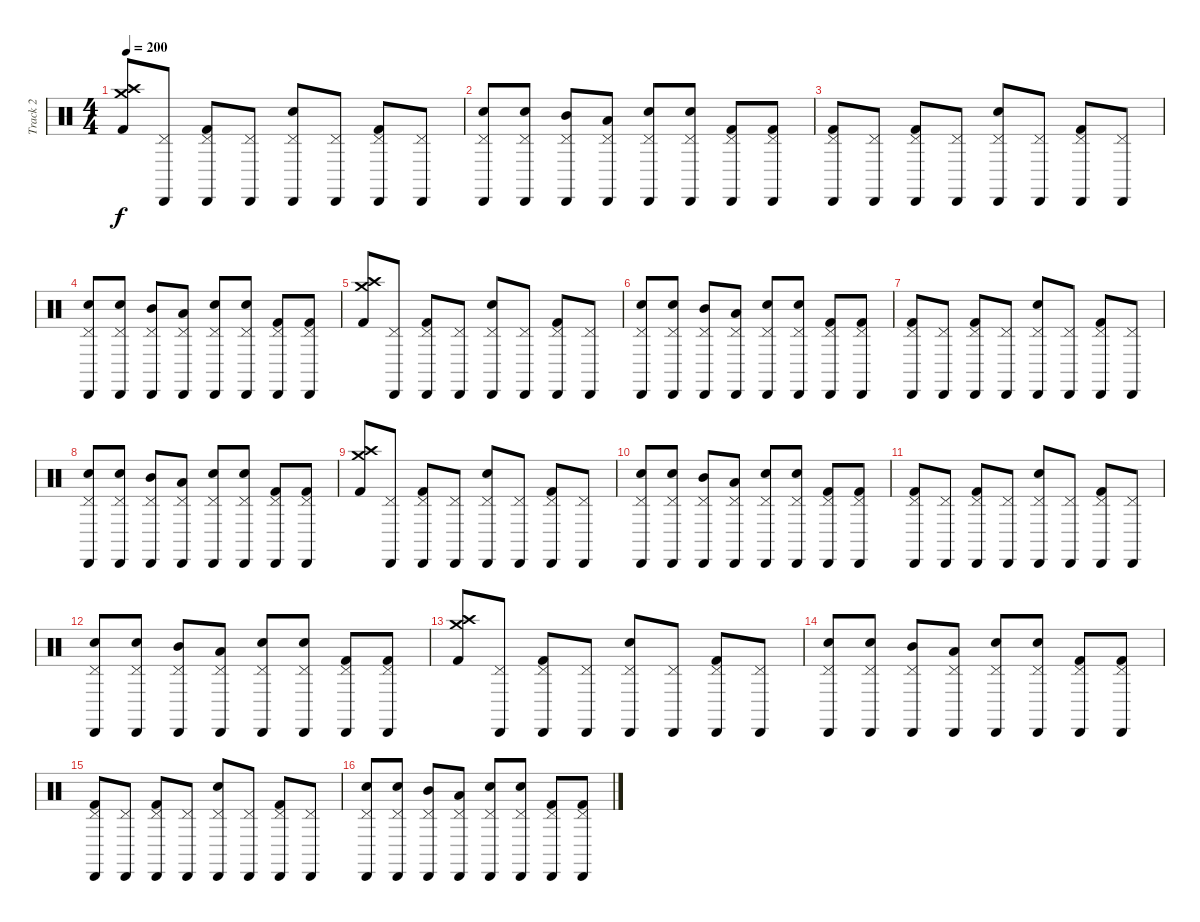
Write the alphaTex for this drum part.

\track ("Track 2" "Track 2") {instrument percussion}
\staff {score}
\articulation defaults
\ts (4 4)
\tempo 200
\clef neutral
\ks c
("Crash high (hit)" "Crash medium (hit)" "Kick (hit) 2").8{dy f} ("Cabasa (hit)" "Pedal Hi-Hat (hit)").8 ("Cabasa (hit)" "Pedal Hi-Hat (hit)" "Kick (hit) 2").8 ("Cabasa (hit)" "Pedal Hi-Hat (hit)").8 ("Cabasa (hit)" "Pedal Hi-Hat (hit)" "Snare (hit) 2").8 ("Cabasa (hit)" "Pedal Hi-Hat (hit)").8 ("Cabasa (hit)" "Pedal Hi-Hat (hit)" "Kick (hit) 2").8 ("Cabasa (hit)" "Pedal Hi-Hat (hit)").8 |
("Cabasa (hit)" "Pedal Hi-Hat (hit)" "Snare (hit) 2").8 ("Cabasa (hit)" "Pedal Hi-Hat (hit)" "Snare (hit) 2").8 ("Cabasa (hit)" "Pedal Hi-Hat (hit)" "Mid Tom (hit)").8 ("Cabasa (hit)" "Pedal Hi-Hat (hit)" "Low Floor Tom (hit)").8 ("Cabasa (hit)" "Pedal Hi-Hat (hit)" "Snare (hit) 2").8 ("Cabasa (hit)" "Pedal Hi-Hat (hit)" "Snare (hit) 2").8 ("Cabasa (hit)" "Pedal Hi-Hat (hit)" "Kick (hit) 2").8 ("Cabasa (hit)" "Pedal Hi-Hat (hit)" "Kick (hit) 2").8 |
("Cabasa (hit)" "Pedal Hi-Hat (hit)" "Kick (hit) 2").8 ("Cabasa (hit)" "Pedal Hi-Hat (hit)").8 ("Cabasa (hit)" "Pedal Hi-Hat (hit)" "Kick (hit) 2").8 ("Cabasa (hit)" "Pedal Hi-Hat (hit)").8 ("Cabasa (hit)" "Pedal Hi-Hat (hit)" "Snare (hit) 2").8 ("Cabasa (hit)" "Pedal Hi-Hat (hit)").8 ("Cabasa (hit)" "Pedal Hi-Hat (hit)" "Kick (hit) 2").8 ("Cabasa (hit)" "Pedal Hi-Hat (hit)").8 |
("Cabasa (hit)" "Pedal Hi-Hat (hit)" "Snare (hit) 2").8 ("Cabasa (hit)" "Pedal Hi-Hat (hit)" "Snare (hit) 2").8 ("Cabasa (hit)" "Pedal Hi-Hat (hit)" "Mid Tom (hit)").8 ("Cabasa (hit)" "Pedal Hi-Hat (hit)" "Low Floor Tom (hit)").8 ("Cabasa (hit)" "Pedal Hi-Hat (hit)" "Snare (hit) 2").8 ("Cabasa (hit)" "Pedal Hi-Hat (hit)" "Snare (hit) 2").8 ("Cabasa (hit)" "Pedal Hi-Hat (hit)" "Kick (hit) 2").8 ("Cabasa (hit)" "Pedal Hi-Hat (hit)" "Kick (hit) 2").8 |
("Crash high (hit)" "Crash medium (hit)" "Kick (hit) 2").8 ("Cabasa (hit)" "Pedal Hi-Hat (hit)").8 ("Cabasa (hit)" "Pedal Hi-Hat (hit)" "Kick (hit) 2").8 ("Cabasa (hit)" "Pedal Hi-Hat (hit)").8 ("Cabasa (hit)" "Pedal Hi-Hat (hit)" "Snare (hit) 2").8 ("Cabasa (hit)" "Pedal Hi-Hat (hit)").8 ("Cabasa (hit)" "Pedal Hi-Hat (hit)" "Kick (hit) 2").8 ("Cabasa (hit)" "Pedal Hi-Hat (hit)").8 |
("Cabasa (hit)" "Pedal Hi-Hat (hit)" "Snare (hit) 2").8 ("Cabasa (hit)" "Pedal Hi-Hat (hit)" "Snare (hit) 2").8 ("Cabasa (hit)" "Pedal Hi-Hat (hit)" "Mid Tom (hit)").8 ("Cabasa (hit)" "Pedal Hi-Hat (hit)" "Low Floor Tom (hit)").8 ("Cabasa (hit)" "Pedal Hi-Hat (hit)" "Snare (hit) 2").8 ("Cabasa (hit)" "Pedal Hi-Hat (hit)" "Snare (hit) 2").8 ("Cabasa (hit)" "Pedal Hi-Hat (hit)" "Kick (hit) 2").8 ("Cabasa (hit)" "Pedal Hi-Hat (hit)" "Kick (hit) 2").8 |
("Cabasa (hit)" "Pedal Hi-Hat (hit)" "Kick (hit) 2").8 ("Cabasa (hit)" "Pedal Hi-Hat (hit)").8 ("Cabasa (hit)" "Pedal Hi-Hat (hit)" "Kick (hit) 2").8 ("Cabasa (hit)" "Pedal Hi-Hat (hit)").8 ("Cabasa (hit)" "Pedal Hi-Hat (hit)" "Snare (hit) 2").8 ("Cabasa (hit)" "Pedal Hi-Hat (hit)").8 ("Cabasa (hit)" "Pedal Hi-Hat (hit)" "Kick (hit) 2").8 ("Cabasa (hit)" "Pedal Hi-Hat (hit)").8 |
("Cabasa (hit)" "Pedal Hi-Hat (hit)" "Snare (hit) 2").8 ("Cabasa (hit)" "Pedal Hi-Hat (hit)" "Snare (hit) 2").8 ("Cabasa (hit)" "Pedal Hi-Hat (hit)" "Mid Tom (hit)").8 ("Cabasa (hit)" "Pedal Hi-Hat (hit)" "Low Floor Tom (hit)").8 ("Cabasa (hit)" "Pedal Hi-Hat (hit)" "Snare (hit) 2").8 ("Cabasa (hit)" "Pedal Hi-Hat (hit)" "Snare (hit) 2").8 ("Cabasa (hit)" "Pedal Hi-Hat (hit)" "Kick (hit) 2").8 ("Cabasa (hit)" "Pedal Hi-Hat (hit)" "Kick (hit) 2").8 |
("Crash high (hit)" "Crash medium (hit)" "Kick (hit) 2").8 ("Cabasa (hit)" "Pedal Hi-Hat (hit)").8 ("Cabasa (hit)" "Pedal Hi-Hat (hit)" "Kick (hit) 2").8 ("Cabasa (hit)" "Pedal Hi-Hat (hit)").8 ("Cabasa (hit)" "Pedal Hi-Hat (hit)" "Snare (hit) 2").8 ("Cabasa (hit)" "Pedal Hi-Hat (hit)").8 ("Cabasa (hit)" "Pedal Hi-Hat (hit)" "Kick (hit) 2").8 ("Cabasa (hit)" "Pedal Hi-Hat (hit)").8 |
("Cabasa (hit)" "Pedal Hi-Hat (hit)" "Snare (hit) 2").8 ("Cabasa (hit)" "Pedal Hi-Hat (hit)" "Snare (hit) 2").8 ("Cabasa (hit)" "Pedal Hi-Hat (hit)" "Mid Tom (hit)").8 ("Cabasa (hit)" "Pedal Hi-Hat (hit)" "Low Floor Tom (hit)").8 ("Cabasa (hit)" "Pedal Hi-Hat (hit)" "Snare (hit) 2").8 ("Cabasa (hit)" "Pedal Hi-Hat (hit)" "Snare (hit) 2").8 ("Cabasa (hit)" "Pedal Hi-Hat (hit)" "Kick (hit) 2").8 ("Cabasa (hit)" "Pedal Hi-Hat (hit)" "Kick (hit) 2").8 |
("Cabasa (hit)" "Pedal Hi-Hat (hit)" "Kick (hit) 2").8 ("Cabasa (hit)" "Pedal Hi-Hat (hit)").8 ("Cabasa (hit)" "Pedal Hi-Hat (hit)" "Kick (hit) 2").8 ("Cabasa (hit)" "Pedal Hi-Hat (hit)").8 ("Cabasa (hit)" "Pedal Hi-Hat (hit)" "Snare (hit) 2").8 ("Cabasa (hit)" "Pedal Hi-Hat (hit)").8 ("Cabasa (hit)" "Pedal Hi-Hat (hit)" "Kick (hit) 2").8 ("Cabasa (hit)" "Pedal Hi-Hat (hit)").8 |
("Cabasa (hit)" "Pedal Hi-Hat (hit)" "Snare (hit) 2").8 ("Cabasa (hit)" "Pedal Hi-Hat (hit)" "Snare (hit) 2").8 ("Cabasa (hit)" "Pedal Hi-Hat (hit)" "Mid Tom (hit)").8 ("Cabasa (hit)" "Pedal Hi-Hat (hit)" "Low Floor Tom (hit)").8 ("Cabasa (hit)" "Pedal Hi-Hat (hit)" "Snare (hit) 2").8 ("Cabasa (hit)" "Pedal Hi-Hat (hit)" "Snare (hit) 2").8 ("Cabasa (hit)" "Pedal Hi-Hat (hit)" "Kick (hit) 2").8 ("Cabasa (hit)" "Pedal Hi-Hat (hit)" "Kick (hit) 2").8 |
("Crash high (hit)" "Crash medium (hit)" "Kick (hit) 2").8 ("Cabasa (hit)" "Pedal Hi-Hat (hit)").8 ("Cabasa (hit)" "Pedal Hi-Hat (hit)" "Kick (hit) 2").8 ("Cabasa (hit)" "Pedal Hi-Hat (hit)").8 ("Cabasa (hit)" "Pedal Hi-Hat (hit)" "Snare (hit) 2").8 ("Cabasa (hit)" "Pedal Hi-Hat (hit)").8 ("Cabasa (hit)" "Pedal Hi-Hat (hit)" "Kick (hit) 2").8 ("Cabasa (hit)" "Pedal Hi-Hat (hit)").8 |
("Cabasa (hit)" "Pedal Hi-Hat (hit)" "Snare (hit) 2").8 ("Cabasa (hit)" "Pedal Hi-Hat (hit)" "Snare (hit) 2").8 ("Cabasa (hit)" "Pedal Hi-Hat (hit)" "Mid Tom (hit)").8 ("Cabasa (hit)" "Pedal Hi-Hat (hit)" "Low Floor Tom (hit)").8 ("Cabasa (hit)" "Pedal Hi-Hat (hit)" "Snare (hit) 2").8 ("Cabasa (hit)" "Pedal Hi-Hat (hit)" "Snare (hit) 2").8 ("Cabasa (hit)" "Pedal Hi-Hat (hit)" "Kick (hit) 2").8 ("Cabasa (hit)" "Pedal Hi-Hat (hit)" "Kick (hit) 2").8 |
("Cabasa (hit)" "Pedal Hi-Hat (hit)" "Kick (hit) 2").8 ("Cabasa (hit)" "Pedal Hi-Hat (hit)").8 ("Cabasa (hit)" "Pedal Hi-Hat (hit)" "Kick (hit) 2").8 ("Cabasa (hit)" "Pedal Hi-Hat (hit)").8 ("Cabasa (hit)" "Pedal Hi-Hat (hit)" "Snare (hit) 2").8 ("Cabasa (hit)" "Pedal Hi-Hat (hit)").8 ("Cabasa (hit)" "Pedal Hi-Hat (hit)" "Kick (hit) 2").8 ("Cabasa (hit)" "Pedal Hi-Hat (hit)").8 |
("Cabasa (hit)" "Pedal Hi-Hat (hit)" "Snare (hit) 2").8 ("Cabasa (hit)" "Pedal Hi-Hat (hit)" "Snare (hit) 2").8 ("Cabasa (hit)" "Pedal Hi-Hat (hit)" "Mid Tom (hit)").8 ("Cabasa (hit)" "Pedal Hi-Hat (hit)" "Low Floor Tom (hit)").8 ("Cabasa (hit)" "Pedal Hi-Hat (hit)" "Snare (hit) 2").8 ("Cabasa (hit)" "Pedal Hi-Hat (hit)" "Snare (hit) 2").8 ("Cabasa (hit)" "Pedal Hi-Hat (hit)" "Kick (hit) 2").8 ("Cabasa (hit)" "Pedal Hi-Hat (hit)" "Kick (hit) 2").8
